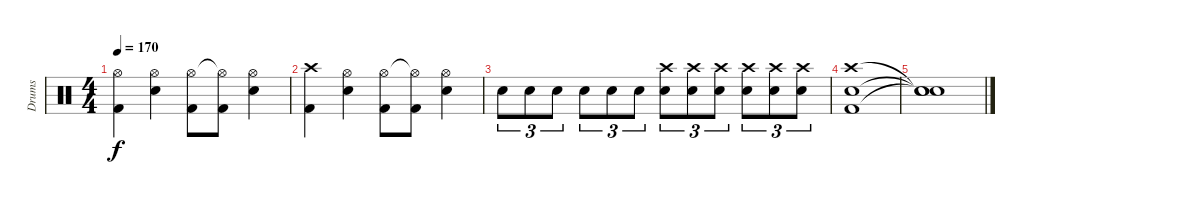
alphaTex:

\track ("Drums" "Drums") {instrument percussion}
\staff {score}
\articulation defaults
\ts (4 4)
\tempo 170
\clef neutral
\ks c
("Hi-Hat (open)" "Kick (hit) 2").4{dy f} ("Hi-Hat (open)" "Snare (hit) 2").4 ("Hi-Hat (open)" "Kick (hit) 2").8 ("Hi-Hat (open)"{t} "Kick (hit) 2").8 ("Hi-Hat (open)" "Snare (hit) 2").4 |
("Crash high (hit)" "Kick (hit) 2").4 ("Hi-Hat (open)" "Snare (hit) 2").4 ("Hi-Hat (open)" "Kick (hit) 2").8 ("Hi-Hat (open)"{t} "Kick (hit) 2").8 ("Hi-Hat (open)" "Snare (hit) 2").4 |
"Snare (hit) 2".8{tu (3 2)} "Snare (hit) 2".8{tu (3 2)} "Snare (hit) 2".8{tu (3 2)} "Snare (hit) 2".8{tu (3 2)} "Snare (hit) 2".8{tu (3 2)} "Snare (hit) 2".8{tu (3 2)} ("Crash high (hit)" "Snare (hit) 2").8{tu (3 2)} ("Crash high (hit)" "Snare (hit) 2").8{tu (3 2)} ("Crash high (hit)" "Snare (hit) 2").8{tu (3 2)} ("Crash high (hit)" "Snare (hit) 2").8{tu (3 2)} ("Crash high (hit)" "Snare (hit) 2").8{tu (3 2)} ("Crash high (hit)" "Snare (hit) 2").8{tu (3 2)} |
("Crash high (hit)" "Kick (hit) 2" "Snare (hit) 2").1 |
("Snare (hit)"{t} "Snare (hit)"{t} "Snare (hit)"{t}).1
